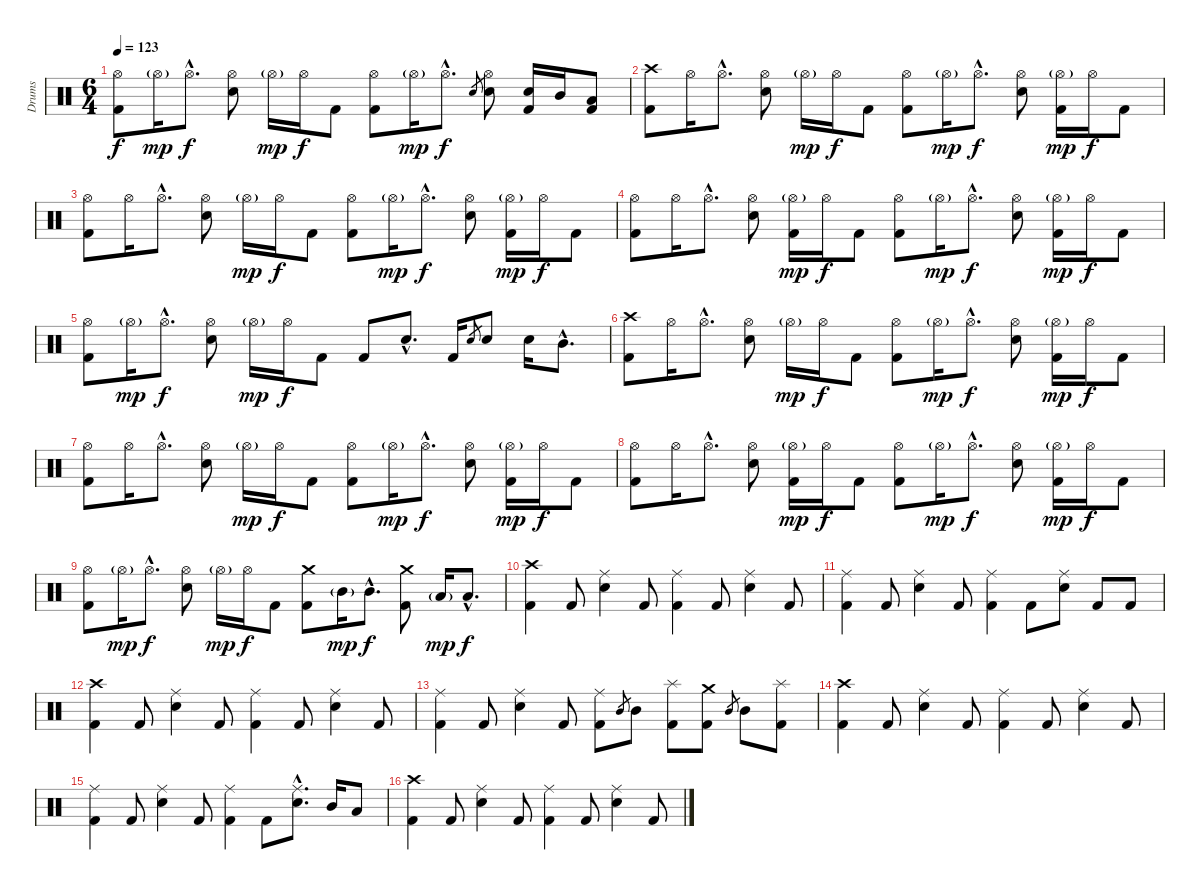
\track ("Drums" "Drums") {instrument percussion}
\staff {score}
\articulation defaults
\ts (6 4)
\tempo 123
\clef neutral
\ks c
("Hi-Hat (open)" "Kick (hit) 2").8{dy f} "Hi-Hat (open)"{g}.16{dy mp} "Hi-Hat (open)"{hac}.8{d dy f} ("Hi-Hat (open)" "Snare (hit) 2").8 "Hi-Hat (open)"{g}.16{dy mp} "Hi-Hat (open)".16{dy f} "Kick (hit) 2".8 ("Hi-Hat (open)" "Kick (hit) 2").8 "Hi-Hat (open)"{g}.16{dy mp} "Hi-Hat (open)"{hac}.8{d dy f} "Snare (hit) 2".8{gr} ("Hi-Hat (open)" "Snare (hit) 2").8 ("Snare (hit) 2" "Kick (hit) 2").16 "Mid Tom (hit)".16 ("Low Tom (hit)" "Kick (hit) 2").8 |
("Crash high (hit)" "Kick (hit) 2").8 "Hi-Hat (open)".16 "Hi-Hat (open)"{hac}.8{d} ("Hi-Hat (open)" "Snare (hit) 2").8 "Hi-Hat (open)"{g}.16{dy mp} "Hi-Hat (open)".16{dy f} "Kick (hit) 2".8 ("Hi-Hat (open)" "Kick (hit) 2").8 "Hi-Hat (open)"{g}.16{dy mp} "Hi-Hat (open)"{hac}.8{d dy f} ("Hi-Hat (open)" "Snare (hit) 2").8 ("Hi-Hat (open)"{g} "Kick (hit) 2").16{dy mp} "Hi-Hat (open)".16{dy f} "Kick (hit) 2".8 |
("Hi-Hat (open)" "Kick (hit) 2").8 "Hi-Hat (open)".16 "Hi-Hat (open)"{hac}.8{d} ("Hi-Hat (open)" "Snare (hit) 2").8 "Hi-Hat (open)"{g}.16{dy mp} "Hi-Hat (open)".16{dy f} "Kick (hit) 2".8 ("Hi-Hat (open)" "Kick (hit) 2").8 "Hi-Hat (open)"{g}.16{dy mp} "Hi-Hat (open)"{hac}.8{d dy f} ("Hi-Hat (open)" "Snare (hit) 2").8 ("Hi-Hat (open)"{g} "Kick (hit) 2").16{dy mp} "Hi-Hat (open)".16{dy f} "Kick (hit) 2".8 |
("Hi-Hat (open)" "Kick (hit) 2").8 "Hi-Hat (open)".16 "Hi-Hat (open)"{hac}.8{d} ("Hi-Hat (open)" "Snare (hit) 2").8 ("Hi-Hat (open)"{g} "Kick (hit) 2").16{dy mp} "Hi-Hat (open)".16{dy f} "Kick (hit) 2".8 ("Hi-Hat (open)" "Kick (hit) 2").8 "Hi-Hat (open)"{g}.16{dy mp} "Hi-Hat (open)"{hac}.8{d dy f} ("Hi-Hat (open)" "Snare (hit) 2").8 ("Hi-Hat (open)"{g} "Kick (hit) 2").16{dy mp} "Hi-Hat (open)".16{dy f} "Kick (hit) 2".8 |
("Hi-Hat (open)" "Kick (hit) 2").8 "Hi-Hat (open)"{g}.16{dy mp} "Hi-Hat (open)"{hac}.8{d dy f} ("Hi-Hat (open)" "Snare (hit) 2").8 "Hi-Hat (open)"{g}.16{dy mp} "Hi-Hat (open)".16{dy f} "Kick (hit) 2".8 "Kick (hit) 2".8 "Snare (hit) 2"{hac}.8{d} "Kick (hit) 2".16 "Snare (hit) 2".8{gr} "Snare (hit) 2".8 "Snare (hit) 2".16 "Mid Tom (hit)"{hac}.8{d} |
("Crash high (hit)" "Kick (hit) 2").8 "Hi-Hat (open)".16 "Hi-Hat (open)"{hac}.8{d} ("Hi-Hat (open)" "Snare (hit) 2").8 "Hi-Hat (open)"{g}.16{dy mp} "Hi-Hat (open)".16{dy f} "Kick (hit) 2".8 ("Hi-Hat (open)" "Kick (hit) 2").8 "Hi-Hat (open)"{g}.16{dy mp} "Hi-Hat (open)"{hac}.8{d dy f} ("Hi-Hat (open)" "Snare (hit) 2").8 ("Hi-Hat (open)"{g} "Kick (hit) 2").16{dy mp} "Hi-Hat (open)".16{dy f} "Kick (hit) 2".8 |
("Hi-Hat (open)" "Kick (hit) 2").8 "Hi-Hat (open)".16 "Hi-Hat (open)"{hac}.8{d} ("Hi-Hat (open)" "Snare (hit) 2").8 "Hi-Hat (open)"{g}.16{dy mp} "Hi-Hat (open)".16{dy f} "Kick (hit) 2".8 ("Hi-Hat (open)" "Kick (hit) 2").8 "Hi-Hat (open)"{g}.16{dy mp} "Hi-Hat (open)"{hac}.8{d dy f} ("Hi-Hat (open)" "Snare (hit) 2").8 ("Hi-Hat (open)"{g} "Kick (hit) 2").16{dy mp} "Hi-Hat (open)".16{dy f} "Kick (hit) 2".8 |
("Hi-Hat (open)" "Kick (hit) 2").8 "Hi-Hat (open)".16 "Hi-Hat (open)"{hac}.8{d} ("Hi-Hat (open)" "Snare (hit) 2").8 ("Hi-Hat (open)"{g} "Kick (hit) 2").16{dy mp} "Hi-Hat (open)".16{dy f} "Kick (hit) 2".8 ("Hi-Hat (open)" "Kick (hit) 2").8 "Hi-Hat (open)"{g}.16{dy mp} "Hi-Hat (open)"{hac}.8{d dy f} ("Hi-Hat (open)" "Snare (hit) 2").8 ("Hi-Hat (open)"{g} "Kick (hit) 2").16{dy mp} "Hi-Hat (open)".16{dy f} "Kick (hit) 2".8 |
("Hi-Hat (open)" "Kick (hit) 2").8 "Hi-Hat (open)"{g}.16{dy mp} "Hi-Hat (open)"{hac}.8{d dy f} ("Hi-Hat (open)" "Snare (hit) 2").8 "Hi-Hat (open)"{g}.16{dy mp} "Hi-Hat (open)".16{dy f} "Kick (hit) 2".8 ("Crash medium (hit)" "Kick (hit) 2").8 "Mid Tom (hit)"{g}.16{dy mp} "Mid Tom (hit)"{hac}.8{d dy f} ("Crash medium (hit)" "Kick (hit) 2").8 "Low Tom (hit)"{g}.16{dy mp} "Low Tom (hit)"{hac}.8{d dy f} |
("Crash high (hit)" "Kick (hit) 2").4 "Kick (hit) 2".8 ("Ride (middle)" "Snare (hit) 2").4 "Kick (hit) 2".8 ("Ride (middle)" "Kick (hit) 2").4 "Kick (hit) 2".8 ("Ride (middle)" "Snare (hit) 2").4 "Kick (hit) 2".8 |
("Ride (middle)" "Kick (hit) 2").4 "Kick (hit) 2".8 ("Ride (middle)" "Snare (hit) 2").4 "Kick (hit) 2".8 ("Ride (middle)" "Kick (hit) 2").4 "Kick (hit) 2".8 ("Ride (middle)" "Snare (hit) 2").8 "Kick (hit) 2".8 "Kick (hit) 2".8 |
("Crash high (hit)" "Kick (hit) 2").4 "Kick (hit) 2".8 ("Ride (middle)" "Snare (hit) 2").4 "Kick (hit) 2".8 ("Ride (middle)" "Kick (hit) 2").4 "Kick (hit) 2".8 ("Ride (middle)" "Snare (hit) 2").4 "Kick (hit) 2".8 |
("Ride (middle)" "Kick (hit) 2").4 "Kick (hit) 2".8 ("Ride (middle)" "Snare (hit) 2").4 "Kick (hit) 2".8 ("Ride (middle)" "Kick (hit) 2").8 "Mid Tom (hit)".8{gr} "Mid Tom (hit)".8 ("Splash (hit)" "Kick (hit) 2").8 ("Crash medium (hit)" "Kick (hit) 2").8 "Mid Tom (hit)".8{gr} "Mid Tom (hit)".8 ("Splash (hit)" "Kick (hit) 2").8 |
("Crash high (hit)" "Kick (hit) 2").4 "Kick (hit) 2".8 ("Ride (middle)" "Snare (hit) 2").4 "Kick (hit) 2".8 ("Ride (middle)" "Kick (hit) 2").4 "Kick (hit) 2".8 ("Ride (middle)" "Snare (hit) 2").4 "Kick (hit) 2".8 |
("Ride (middle)" "Kick (hit) 2").4 "Kick (hit) 2".8 ("Ride (middle)" "Snare (hit) 2").4 "Kick (hit) 2".8 ("Ride (middle)" "Kick (hit) 2").4 "Kick (hit) 2".8 ("Ride (middle)"{hac} "Snare (hit) 2"{hac}).8{d} "Mid Tom (hit)".16 "Low Tom (hit)".8 |
("Crash high (hit)" "Kick (hit) 2").4 "Kick (hit) 2".8 ("Ride (middle)" "Snare (hit) 2").4 "Kick (hit) 2".8 ("Ride (middle)" "Kick (hit) 2").4 "Kick (hit) 2".8 ("Ride (middle)" "Snare (hit) 2").4 "Kick (hit) 2".8
